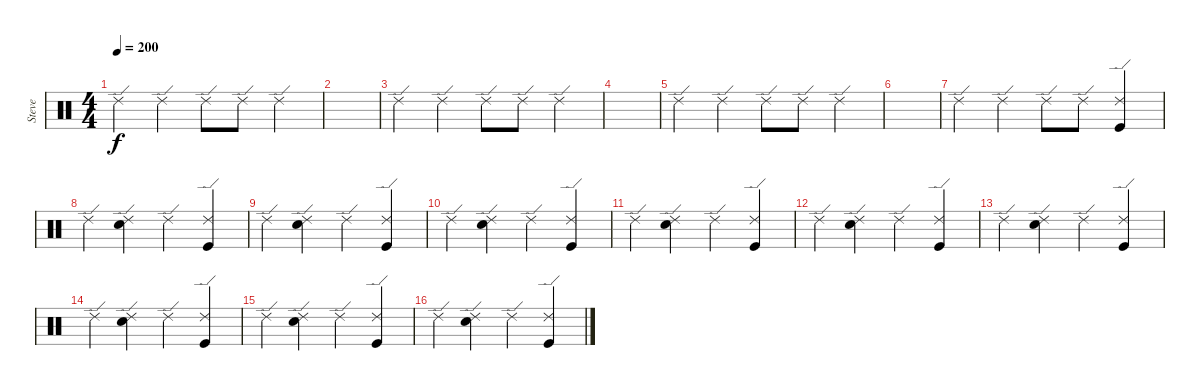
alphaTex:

\track ("Steve" "Steve") {instrument percussion}
\staff {score}
\articulation defaults
\ts (4 4)
\tempo 200
\clef neutral
\ks c "Ride (edge) 2".4{dy f} "Ride (edge) 2".4 "Ride (edge) 2".8 "Ride (edge) 2".8 "Ride (edge) 2".4
|
|
"Ride (edge) 2".4 "Ride (edge) 2".4 "Ride (edge) 2".8 "Ride (edge) 2".8 "Ride (edge) 2".4 |
|
"Ride (edge) 2".4 "Ride (edge) 2".4 "Ride (edge) 2".8 "Ride (edge) 2".8 "Ride (edge) 2".4 |
|
"Ride (edge) 2".4 "Ride (edge) 2".4 "Ride (edge) 2".8 "Ride (edge) 2".8 ("Ride (edge) 2" "Kick (hit)").4 |
"Ride (edge) 2".4 ("Ride (edge) 2" "Snare (hit) 2").4 "Ride (edge) 2".4 ("Ride (edge) 2" "Kick (hit)").4 |
"Ride (edge) 2".4 ("Ride (edge) 2" "Snare (hit) 2").4 "Ride (edge) 2".4 ("Ride (edge) 2" "Kick (hit)").4 |
"Ride (edge) 2".4 ("Ride (edge) 2" "Snare (hit) 2").4 "Ride (edge) 2".4 ("Ride (edge) 2" "Kick (hit)").4 |
"Ride (edge) 2".4 ("Ride (edge) 2" "Snare (hit) 2").4 "Ride (edge) 2".4 ("Ride (edge) 2" "Kick (hit)").4 |
"Ride (edge) 2".4 ("Ride (edge) 2" "Snare (hit) 2").4 "Ride (edge) 2".4 ("Ride (edge) 2" "Kick (hit)").4 |
"Ride (edge) 2".4 ("Ride (edge) 2" "Snare (hit) 2").4 "Ride (edge) 2".4 ("Ride (edge) 2" "Kick (hit)").4 |
"Ride (edge) 2".4 ("Ride (edge) 2" "Snare (hit) 2").4 "Ride (edge) 2".4 ("Ride (edge) 2" "Kick (hit)").4 |
"Ride (edge) 2".4 ("Ride (edge) 2" "Snare (hit) 2").4 "Ride (edge) 2".4 ("Ride (edge) 2" "Kick (hit)").4 |
"Ride (edge) 2".4 ("Ride (edge) 2" "Snare (hit) 2").4 "Ride (edge) 2".4 ("Ride (edge) 2" "Kick (hit)").4
